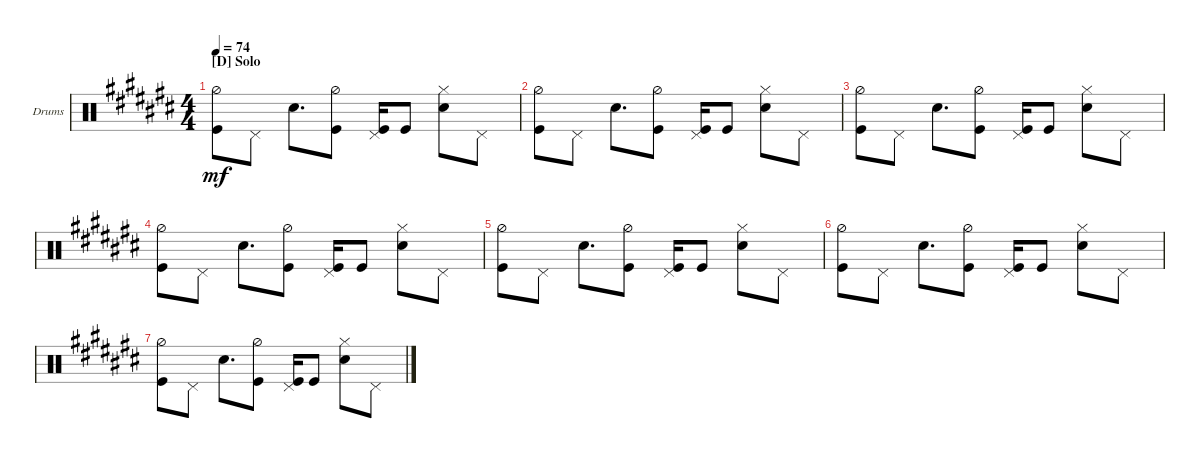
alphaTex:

\defaultSystemsLayout 4
\bracketExtendMode groupsimilarinstruments
\firstSystemTrackNameOrientation horizontal
\otherSystemsTrackNameOrientation horizontal
\track ("Drum" "Drums") {multiBarRest instrument percussion}
\staff {score}
\articulation defaults
\ts (4 4)
\section ("D" "Solo")
\tempo 74
\clef neutral
\ks c#
("Kick (hit)" "Hi-Hat (half)").8{dy mf} "Pedal Hi-Hat (hit)".8 "Snare (hit) 2".8{d} ("Kick (hit)" "Hi-Hat (half)").8 ("Kick (hit)" "Pedal Hi-Hat (hit)").16 "Kick (hit)".8 ("Snare (hit) 2" "Hi-Hat (closed)").8 "Pedal Hi-Hat (hit)".8 |
("Kick (hit)" "Hi-Hat (half)").8 "Pedal Hi-Hat (hit)".8 "Snare (hit) 2".8{d} ("Kick (hit)" "Hi-Hat (half)").8 ("Kick (hit)" "Pedal Hi-Hat (hit)").16 "Kick (hit)".8 ("Snare (hit) 2" "Hi-Hat (closed)").8 "Pedal Hi-Hat (hit)".8 |
("Kick (hit)" "Hi-Hat (half)").8 "Pedal Hi-Hat (hit)".8 "Snare (hit) 2".8{d} ("Kick (hit)" "Hi-Hat (half)").8 ("Kick (hit)" "Pedal Hi-Hat (hit)").16 "Kick (hit)".8 ("Snare (hit) 2" "Hi-Hat (closed)").8 "Pedal Hi-Hat (hit)".8 |
("Kick (hit)" "Hi-Hat (half)").8 "Pedal Hi-Hat (hit)".8 "Snare (hit) 2".8{d} ("Kick (hit)" "Hi-Hat (half)").8 ("Kick (hit)" "Pedal Hi-Hat (hit)").16 "Kick (hit)".8 ("Snare (hit) 2" "Hi-Hat (closed)").8 "Pedal Hi-Hat (hit)".8 |
("Kick (hit)" "Hi-Hat (half)").8 "Pedal Hi-Hat (hit)".8 "Snare (hit) 2".8{d} ("Kick (hit)" "Hi-Hat (half)").8 ("Kick (hit)" "Pedal Hi-Hat (hit)").16 "Kick (hit)".8 ("Snare (hit) 2" "Hi-Hat (closed)").8 "Pedal Hi-Hat (hit)".8 |
("Kick (hit)" "Hi-Hat (half)").8 "Pedal Hi-Hat (hit)".8 "Snare (hit) 2".8{d} ("Kick (hit)" "Hi-Hat (half)").8 ("Kick (hit)" "Pedal Hi-Hat (hit)").16 "Kick (hit)".8 ("Snare (hit) 2" "Hi-Hat (closed)").8 "Pedal Hi-Hat (hit)".8 |
("Kick (hit)" "Hi-Hat (half)").8 "Pedal Hi-Hat (hit)".8 "Snare (hit) 2".8{d} ("Kick (hit)" "Hi-Hat (half)").8 ("Kick (hit)" "Pedal Hi-Hat (hit)").16 "Kick (hit)".8 ("Snare (hit) 2" "Hi-Hat (closed)").8 "Pedal Hi-Hat (hit)".8
